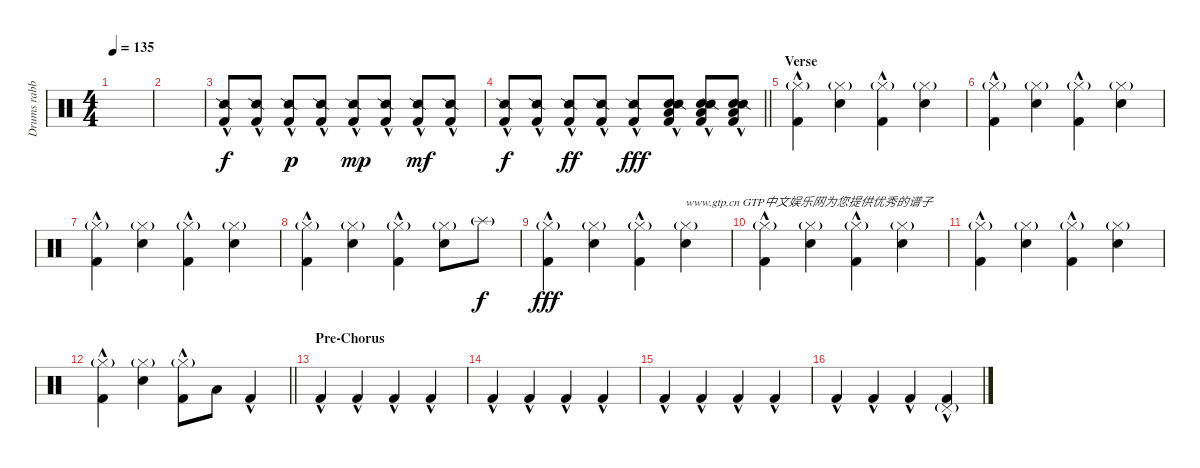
\track ("Drums rabbit" "Drums rabb") {instrument percussion}
\staff {score}
\articulation defaults
\ts (4 4)
\tempo 135
\clef neutral
\ks c
|
|
("Kick (hit) 2"{hac} "Snare (side stick) 2").8 ("Kick (hit) 2"{hac} "Snare (side stick) 2").8 ("Kick (hit) 2"{hac} "Snare (side stick) 2").8{dy p} ("Kick (hit) 2"{hac} "Snare (side stick) 2").8 ("Kick (hit) 2"{hac} "Snare (side stick) 2").8{dy mp} ("Kick (hit) 2"{hac} "Snare (side stick) 2").8 ("Kick (hit) 2"{hac} "Snare (side stick) 2").8{dy mf} ("Kick (hit) 2"{hac} "Snare (side stick) 2").8 |
\barLineRight lightlight
("Kick (hit) 2"{hac} "Snare (side stick) 2").8{dy f} ("Kick (hit) 2"{hac} "Snare (side stick) 2").8 ("Kick (hit) 2"{hac} "Snare (side stick) 2").8{dy ff} ("Kick (hit) 2"{hac} "Snare (side stick) 2").8 ("Kick (hit) 2"{hac} "Snare (side stick) 2").8{dy fff} ("Kick (hit) 2"{hac} "Electric Snare (hit)" "Low Floor Tom (hit)" "Snare (side stick) 2").8 ("Kick (hit) 2"{hac} "Electric Snare (hit)" "Low Floor Tom (hit)" "Snare (side stick) 2").8 ("Kick (hit) 2"{hac} "Electric Snare (hit)" "Low Floor Tom (hit)" "Snare (side stick) 2").8 |
\section ("" "Verse")
("Kick (hit) 2"{hac} "Hi-Hat (closed)"{g}).4 ("Electric Snare (hit)" "Hi-Hat (closed)"{g}).4 ("Kick (hit) 2"{hac} "Hi-Hat (closed)"{g}).4 ("Electric Snare (hit)" "Hi-Hat (closed)"{g}).4 |
("Kick (hit) 2"{hac} "Hi-Hat (closed)"{g}).4 ("Electric Snare (hit)" "Hi-Hat (closed)"{g}).4 ("Kick (hit) 2"{hac} "Hi-Hat (closed)"{g}).4 ("Electric Snare (hit)" "Hi-Hat (closed)"{g}).4 |
("Kick (hit) 2"{hac} "Hi-Hat (closed)"{g}).4 ("Electric Snare (hit)" "Hi-Hat (closed)"{g}).4 ("Kick (hit) 2"{hac} "Hi-Hat (closed)"{g}).4 ("Electric Snare (hit)" "Hi-Hat (closed)"{g}).4 |
("Kick (hit) 2"{hac} "Hi-Hat (closed)"{g}).4 ("Electric Snare (hit)" "Hi-Hat (closed)"{g}).4 ("Kick (hit) 2"{hac} "Hi-Hat (closed)"{g}).4 ("Electric Snare (hit)" "Hi-Hat (closed)"{g}).8 "Splash (hit)"{g}.8{dy f} |
("Kick (hit) 2"{hac} "Hi-Hat (closed)"{g}).4{dy fff} ("Electric Snare (hit)" "Hi-Hat (closed)"{g}).4 ("Kick (hit) 2"{hac} "Hi-Hat (closed)"{g}).4 ("Electric Snare (hit)" "Hi-Hat (closed)"{g}).4{txt "www.gtp.cn GTP中文娱乐网为您提供优秀的谱子"} |
("Kick (hit) 2"{hac} "Hi-Hat (closed)"{g}).4 ("Electric Snare (hit)" "Hi-Hat (closed)"{g}).4 ("Kick (hit) 2"{hac} "Hi-Hat (closed)"{g}).4 ("Electric Snare (hit)" "Hi-Hat (closed)"{g}).4 |
("Kick (hit) 2"{hac} "Hi-Hat (closed)"{g}).4 ("Electric Snare (hit)" "Hi-Hat (closed)"{g}).4 ("Kick (hit) 2"{hac} "Hi-Hat (closed)"{g}).4 ("Electric Snare (hit)" "Hi-Hat (closed)"{g}).4 |
\barLineRight lightlight
("Kick (hit) 2"{hac} "Hi-Hat (closed)"{g}).4 ("Electric Snare (hit)" "Hi-Hat (closed)"{g}).4 ("Kick (hit) 2"{hac} "Hi-Hat (closed)"{g}).8 "Low Floor Tom (hit)".8 "Kick (hit) 2"{hac}.4 |
\section ("" "Pre-Chorus")
"Kick (hit) 2"{hac}.4 "Kick (hit) 2"{hac}.4 "Kick (hit) 2"{hac}.4 "Kick (hit) 2"{hac}.4 |
"Kick (hit) 2"{hac}.4 "Kick (hit) 2"{hac}.4 "Kick (hit) 2"{hac}.4 "Kick (hit) 2"{hac}.4 |
"Kick (hit) 2"{hac}.4 "Kick (hit) 2"{hac}.4 "Kick (hit) 2"{hac}.4 "Kick (hit) 2"{hac}.4 |
"Kick (hit) 2"{hac}.4 "Kick (hit) 2"{hac}.4 "Kick (hit) 2"{hac}.4 ("Kick (hit) 2"{hac} "Pedal Hi-Hat (hit)"{g}).4
